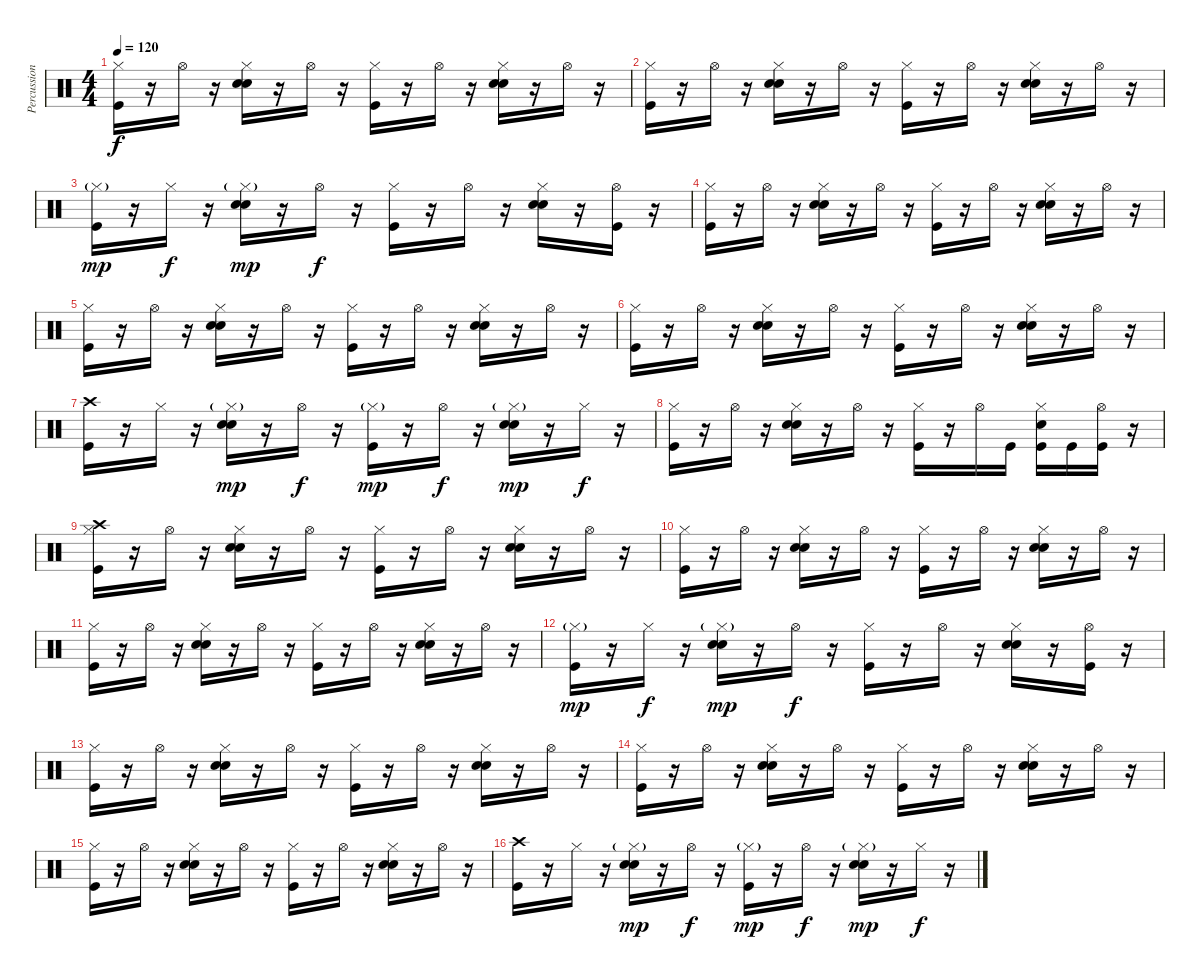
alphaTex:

\track ("Percussion" "Percussion") {instrument percussion}
\staff {score}
\articulation defaults
\ts (4 4)
\tempo 120
\clef neutral
\ks c
("Hi-Hat (closed)" "Kick (hit)").16{dy f} r.16 "Hi-Hat (open)".16 r.16 ("Hi-Hat (closed)" "Hand Clap (hit)" "Snare (hit) 2").16 r.16 "Hi-Hat (open)".16 r.16 ("Hi-Hat (closed)" "Kick (hit)").16 r.16 "Hi-Hat (open)".16 r.16 ("Hi-Hat (closed)" "Hand Clap (hit)" "Snare (hit) 2").16 r.16 "Hi-Hat (open)".16 r.16 |
("Hi-Hat (closed)" "Kick (hit)").16 r.16 "Hi-Hat (open)".16 r.16 ("Hi-Hat (closed)" "Hand Clap (hit)" "Snare (hit) 2").16 r.16 "Hi-Hat (open)".16 r.16 ("Hi-Hat (closed)" "Kick (hit)").16 r.16 "Hi-Hat (open)".16 r.16 ("Hi-Hat (closed)" "Hand Clap (hit)" "Snare (hit) 2").16 r.16 "Hi-Hat (open)".16 r.16 |
("Hi-Hat (closed)"{g} "Kick (hit)").16{dy mp} r.16 "Hi-Hat (closed)".16{dy f} r.16 ("Hi-Hat (closed)"{g} "Hand Clap (hit)" "Snare (hit) 2").16{dy mp} r.16 "Hi-Hat (open)".16{dy f} r.16 ("Hi-Hat (closed)" "Kick (hit)").16 r.16 "Hi-Hat (open)".16 r.16 ("Hi-Hat (closed)" "Hand Clap (hit)" "Snare (hit) 2").16 r.16 ("Hi-Hat (open)" "Kick (hit)").16 r.16 |
("Hi-Hat (closed)" "Kick (hit)").16 r.16 "Hi-Hat (open)".16 r.16 ("Hi-Hat (closed)" "Hand Clap (hit)" "Snare (hit) 2").16 r.16 "Hi-Hat (open)".16 r.16 ("Hi-Hat (closed)" "Kick (hit)").16 r.16 "Hi-Hat (open)".16 r.16 ("Hi-Hat (closed)" "Hand Clap (hit)" "Snare (hit) 2").16 r.16 "Hi-Hat (open)".16 r.16 |
("Hi-Hat (closed)" "Kick (hit)").16 r.16 "Hi-Hat (open)".16 r.16 ("Hi-Hat (closed)" "Hand Clap (hit)" "Snare (hit) 2").16 r.16 "Hi-Hat (open)".16 r.16 ("Hi-Hat (closed)" "Kick (hit)").16 r.16 "Hi-Hat (open)".16 r.16 ("Hi-Hat (closed)" "Hand Clap (hit)" "Snare (hit) 2").16 r.16 "Hi-Hat (open)".16 r.16 |
("Hi-Hat (closed)" "Kick (hit)").16 r.16 "Hi-Hat (open)".16 r.16 ("Hi-Hat (closed)" "Hand Clap (hit)" "Snare (hit) 2").16 r.16 "Hi-Hat (open)".16 r.16 ("Hi-Hat (closed)" "Kick (hit)").16 r.16 "Hi-Hat (open)".16 r.16 ("Hi-Hat (closed)" "Hand Clap (hit)" "Snare (hit) 2").16 r.16 "Hi-Hat (open)".16 r.16 |
("Crash high (hit)" "Kick (hit)").16 r.16 "Hi-Hat (closed)".16 r.16 ("Hi-Hat (closed)"{g} "Hand Clap (hit)" "Snare (hit) 2").16{dy mp} r.16 "Hi-Hat (open)".16{dy f} r.16 ("Hi-Hat (closed)"{g} "Kick (hit)").16{dy mp} r.16 "Hi-Hat (open)".16{dy f} r.16 ("Hi-Hat (closed)"{g} "Hand Clap (hit)" "Snare (hit) 2").16{dy mp} r.16 "Hi-Hat (closed)".16{dy f} r.16 |
("Hi-Hat (closed)" "Kick (hit)").16 r.16 "Hi-Hat (open)".16 r.16 ("Hi-Hat (closed)" "Hand Clap (hit)" "Snare (hit) 2").16 r.16 "Hi-Hat (open)".16 r.16 ("Hi-Hat (closed)" "Kick (hit)").16 r.16 "Hi-Hat (open)".16 "Kick (hit)".16 ("Hi-Hat (closed)" "Hand Clap (hit)" "Kick (hit)").16 "Kick (hit)".16 ("Hi-Hat (open)" "Kick (hit)").16 r.16 |
("Crash high (hit)" "Hi-Hat (closed)" "Kick (hit)").16 r.16 "Hi-Hat (open)".16 r.16 ("Hi-Hat (closed)" "Hand Clap (hit)" "Snare (hit) 2").16 r.16 "Hi-Hat (open)".16 r.16 ("Hi-Hat (closed)" "Kick (hit)").16 r.16 "Hi-Hat (open)".16 r.16 ("Hi-Hat (closed)" "Hand Clap (hit)" "Snare (hit) 2").16 r.16 "Hi-Hat (open)".16 r.16 |
("Hi-Hat (closed)" "Kick (hit)").16 r.16 "Hi-Hat (open)".16 r.16 ("Hi-Hat (closed)" "Hand Clap (hit)" "Snare (hit) 2").16 r.16 "Hi-Hat (open)".16 r.16 ("Hi-Hat (closed)" "Kick (hit)").16 r.16 "Hi-Hat (open)".16 r.16 ("Hi-Hat (closed)" "Hand Clap (hit)" "Snare (hit) 2").16 r.16 "Hi-Hat (open)".16 r.16 |
("Hi-Hat (closed)" "Kick (hit)").16 r.16 "Hi-Hat (open)".16 r.16 ("Hi-Hat (closed)" "Hand Clap (hit)" "Snare (hit) 2").16 r.16 "Hi-Hat (open)".16 r.16 ("Hi-Hat (closed)" "Kick (hit)").16 r.16 "Hi-Hat (open)".16 r.16 ("Hi-Hat (closed)" "Hand Clap (hit)" "Snare (hit) 2").16 r.16 "Hi-Hat (open)".16 r.16 |
("Hi-Hat (closed)"{g} "Kick (hit)").16{dy mp} r.16 "Hi-Hat (closed)".16{dy f} r.16 ("Hi-Hat (closed)"{g} "Hand Clap (hit)" "Snare (hit) 2").16{dy mp} r.16 "Hi-Hat (open)".16{dy f} r.16 ("Hi-Hat (closed)" "Kick (hit)").16 r.16 "Hi-Hat (open)".16 r.16 ("Hi-Hat (closed)" "Hand Clap (hit)" "Snare (hit) 2").16 r.16 ("Hi-Hat (open)" "Kick (hit)").16 r.16 |
("Hi-Hat (closed)" "Kick (hit)").16 r.16 "Hi-Hat (open)".16 r.16 ("Hi-Hat (closed)" "Hand Clap (hit)" "Snare (hit) 2").16 r.16 "Hi-Hat (open)".16 r.16 ("Hi-Hat (closed)" "Kick (hit)").16 r.16 "Hi-Hat (open)".16 r.16 ("Hi-Hat (closed)" "Hand Clap (hit)" "Snare (hit) 2").16 r.16 "Hi-Hat (open)".16 r.16 |
("Hi-Hat (closed)" "Kick (hit)").16 r.16 "Hi-Hat (open)".16 r.16 ("Hi-Hat (closed)" "Hand Clap (hit)" "Snare (hit) 2").16 r.16 "Hi-Hat (open)".16 r.16 ("Hi-Hat (closed)" "Kick (hit)").16 r.16 "Hi-Hat (open)".16 r.16 ("Hi-Hat (closed)" "Hand Clap (hit)" "Snare (hit) 2").16 r.16 "Hi-Hat (open)".16 r.16 |
("Hi-Hat (closed)" "Kick (hit)").16 r.16 "Hi-Hat (open)".16 r.16 ("Hi-Hat (closed)" "Hand Clap (hit)" "Snare (hit) 2").16 r.16 "Hi-Hat (open)".16 r.16 ("Hi-Hat (closed)" "Kick (hit)").16 r.16 "Hi-Hat (open)".16 r.16 ("Hi-Hat (closed)" "Hand Clap (hit)" "Snare (hit) 2").16 r.16 "Hi-Hat (open)".16 r.16 |
("Crash high (hit)" "Kick (hit)").16 r.16 "Hi-Hat (closed)".16 r.16 ("Hi-Hat (closed)"{g} "Hand Clap (hit)" "Snare (hit) 2").16{dy mp} r.16 "Hi-Hat (open)".16{dy f} r.16 ("Hi-Hat (closed)"{g} "Kick (hit)").16{dy mp} r.16 "Hi-Hat (open)".16{dy f} r.16 ("Hi-Hat (closed)"{g} "Hand Clap (hit)" "Snare (hit) 2").16{dy mp} r.16 "Hi-Hat (closed)".16{dy f} r.16
